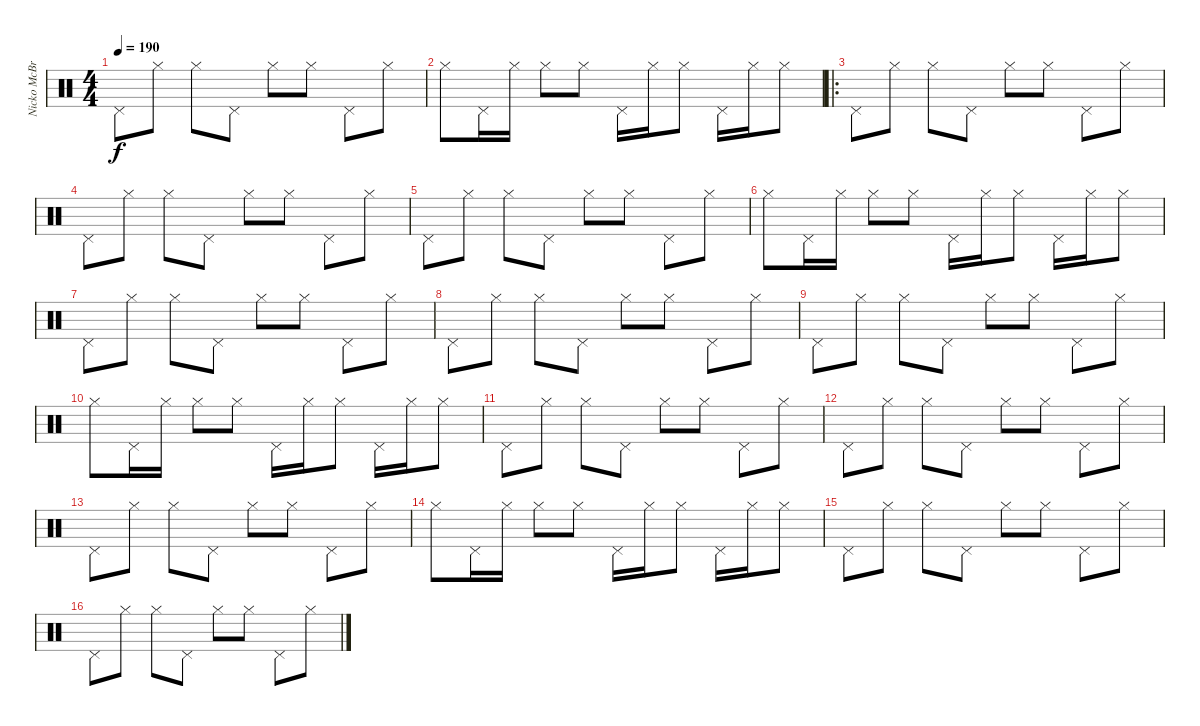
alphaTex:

\track ("Nicko McBrain" "Nicko McBr") {instrument percussion}
\staff {score}
\articulation defaults
\ts (4 4)
\tempo 190
\clef neutral
\ks c "Pedal Hi-Hat (hit)".8{dy f} "Hi-Hat (closed)".8 "Hi-Hat (closed)".8 "Pedal Hi-Hat (hit)".8 "Hi-Hat (closed)".8 "Hi-Hat (closed)".8 "Pedal Hi-Hat (hit)".8 "Hi-Hat (closed)".8
|
"Hi-Hat (closed)".8 "Pedal Hi-Hat (hit)".16 "Hi-Hat (closed)".16 "Hi-Hat (closed)".8 "Hi-Hat (closed)".8 "Pedal Hi-Hat (hit)".16 "Hi-Hat (closed)".16 "Hi-Hat (closed)".8 "Pedal Hi-Hat (hit)".16 "Hi-Hat (closed)".16 "Hi-Hat (closed)".8 |
\ro "Pedal Hi-Hat (hit)".8 "Hi-Hat (closed)".8 "Hi-Hat (closed)".8 "Pedal Hi-Hat (hit)".8 "Hi-Hat (closed)".8 "Hi-Hat (closed)".8 "Pedal Hi-Hat (hit)".8 "Hi-Hat (closed)".8
|
"Pedal Hi-Hat (hit)".8 "Hi-Hat (closed)".8 "Hi-Hat (closed)".8 "Pedal Hi-Hat (hit)".8 "Hi-Hat (closed)".8 "Hi-Hat (closed)".8 "Pedal Hi-Hat (hit)".8 "Hi-Hat (closed)".8 |
"Pedal Hi-Hat (hit)".8 "Hi-Hat (closed)".8 "Hi-Hat (closed)".8 "Pedal Hi-Hat (hit)".8 "Hi-Hat (closed)".8 "Hi-Hat (closed)".8 "Pedal Hi-Hat (hit)".8 "Hi-Hat (closed)".8 |
"Hi-Hat (closed)".8 "Pedal Hi-Hat (hit)".16 "Hi-Hat (closed)".16 "Hi-Hat (closed)".8 "Hi-Hat (closed)".8 "Pedal Hi-Hat (hit)".16 "Hi-Hat (closed)".16 "Hi-Hat (closed)".8 "Pedal Hi-Hat (hit)".16 "Hi-Hat (closed)".16 "Hi-Hat (closed)".8 |
"Pedal Hi-Hat (hit)".8 "Hi-Hat (closed)".8 "Hi-Hat (closed)".8 "Pedal Hi-Hat (hit)".8 "Hi-Hat (closed)".8 "Hi-Hat (closed)".8 "Pedal Hi-Hat (hit)".8 "Hi-Hat (closed)".8 |
"Pedal Hi-Hat (hit)".8 "Hi-Hat (closed)".8 "Hi-Hat (closed)".8 "Pedal Hi-Hat (hit)".8 "Hi-Hat (closed)".8 "Hi-Hat (closed)".8 "Pedal Hi-Hat (hit)".8 "Hi-Hat (closed)".8 |
"Pedal Hi-Hat (hit)".8 "Hi-Hat (closed)".8 "Hi-Hat (closed)".8 "Pedal Hi-Hat (hit)".8 "Hi-Hat (closed)".8 "Hi-Hat (closed)".8 "Pedal Hi-Hat (hit)".8 "Hi-Hat (closed)".8 |
"Hi-Hat (closed)".8 "Pedal Hi-Hat (hit)".16 "Hi-Hat (closed)".16 "Hi-Hat (closed)".8 "Hi-Hat (closed)".8 "Pedal Hi-Hat (hit)".16 "Hi-Hat (closed)".16 "Hi-Hat (closed)".8 "Pedal Hi-Hat (hit)".16 "Hi-Hat (closed)".16 "Hi-Hat (closed)".8 |
"Pedal Hi-Hat (hit)".8 "Hi-Hat (closed)".8 "Hi-Hat (closed)".8 "Pedal Hi-Hat (hit)".8 "Hi-Hat (closed)".8 "Hi-Hat (closed)".8 "Pedal Hi-Hat (hit)".8 "Hi-Hat (closed)".8 |
"Pedal Hi-Hat (hit)".8 "Hi-Hat (closed)".8 "Hi-Hat (closed)".8 "Pedal Hi-Hat (hit)".8 "Hi-Hat (closed)".8 "Hi-Hat (closed)".8 "Pedal Hi-Hat (hit)".8 "Hi-Hat (closed)".8 |
"Pedal Hi-Hat (hit)".8 "Hi-Hat (closed)".8 "Hi-Hat (closed)".8 "Pedal Hi-Hat (hit)".8 "Hi-Hat (closed)".8 "Hi-Hat (closed)".8 "Pedal Hi-Hat (hit)".8 "Hi-Hat (closed)".8 |
"Hi-Hat (closed)".8 "Pedal Hi-Hat (hit)".16 "Hi-Hat (closed)".16 "Hi-Hat (closed)".8 "Hi-Hat (closed)".8 "Pedal Hi-Hat (hit)".16 "Hi-Hat (closed)".16 "Hi-Hat (closed)".8 "Pedal Hi-Hat (hit)".16 "Hi-Hat (closed)".16 "Hi-Hat (closed)".8 |
"Pedal Hi-Hat (hit)".8 "Hi-Hat (closed)".8 "Hi-Hat (closed)".8 "Pedal Hi-Hat (hit)".8 "Hi-Hat (closed)".8 "Hi-Hat (closed)".8 "Pedal Hi-Hat (hit)".8 "Hi-Hat (closed)".8 |
"Pedal Hi-Hat (hit)".8 "Hi-Hat (closed)".8 "Hi-Hat (closed)".8 "Pedal Hi-Hat (hit)".8 "Hi-Hat (closed)".8 "Hi-Hat (closed)".8 "Pedal Hi-Hat (hit)".8 "Hi-Hat (closed)".8
